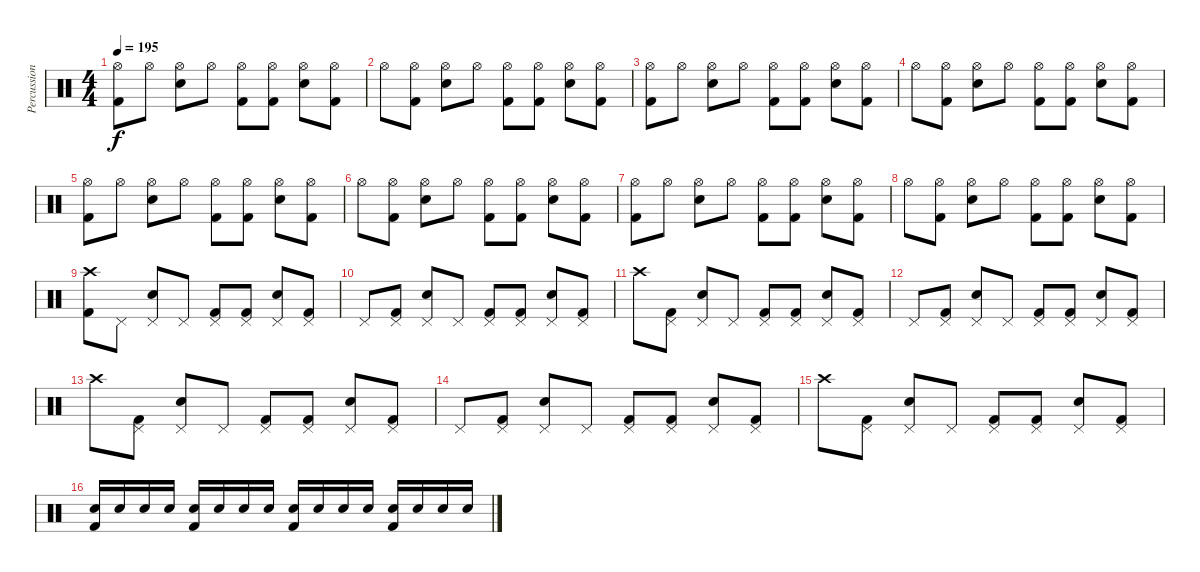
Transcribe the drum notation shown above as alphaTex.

\track ("Percussion" "Percussion") {instrument percussion}
\staff {score}
\articulation defaults
\ts (4 4)
\tempo 195
\clef neutral
\ks c
("Hi-Hat (open)" "Kick (hit) 2").8{dy f} "Hi-Hat (open)".8 ("Hi-Hat (open)" "Electric Snare (hit)").8 "Hi-Hat (open)".8 ("Hi-Hat (open)" "Kick (hit) 2").8 ("Hi-Hat (open)" "Kick (hit) 2").8 ("Hi-Hat (open)" "Electric Snare (hit)").8 ("Hi-Hat (open)" "Kick (hit) 2").8 |
"Hi-Hat (open)".8 ("Hi-Hat (open)" "Kick (hit) 2").8 ("Hi-Hat (open)" "Electric Snare (hit)").8 "Hi-Hat (open)".8 ("Hi-Hat (open)" "Kick (hit) 2").8 ("Hi-Hat (open)" "Kick (hit) 2").8 ("Hi-Hat (open)" "Electric Snare (hit)").8 ("Hi-Hat (open)" "Kick (hit) 2").8 |
("Hi-Hat (open)" "Kick (hit) 2").8 "Hi-Hat (open)".8 ("Hi-Hat (open)" "Electric Snare (hit)").8 "Hi-Hat (open)".8 ("Hi-Hat (open)" "Kick (hit) 2").8 ("Hi-Hat (open)" "Kick (hit) 2").8 ("Hi-Hat (open)" "Electric Snare (hit)").8 ("Hi-Hat (open)" "Kick (hit) 2").8 |
"Hi-Hat (open)".8 ("Hi-Hat (open)" "Kick (hit) 2").8 ("Hi-Hat (open)" "Electric Snare (hit)").8 "Hi-Hat (open)".8 ("Hi-Hat (open)" "Kick (hit) 2").8 ("Hi-Hat (open)" "Kick (hit) 2").8 ("Hi-Hat (open)" "Electric Snare (hit)").8 ("Hi-Hat (open)" "Kick (hit) 2").8 |
("Hi-Hat (open)" "Kick (hit) 2").8 "Hi-Hat (open)".8 ("Hi-Hat (open)" "Electric Snare (hit)").8 "Hi-Hat (open)".8 ("Hi-Hat (open)" "Kick (hit) 2").8 ("Hi-Hat (open)" "Kick (hit) 2").8 ("Hi-Hat (open)" "Electric Snare (hit)").8 ("Hi-Hat (open)" "Kick (hit) 2").8 |
"Hi-Hat (open)".8 ("Hi-Hat (open)" "Kick (hit) 2").8 ("Hi-Hat (open)" "Electric Snare (hit)").8 "Hi-Hat (open)".8 ("Hi-Hat (open)" "Kick (hit) 2").8 ("Hi-Hat (open)" "Kick (hit) 2").8 ("Hi-Hat (open)" "Electric Snare (hit)").8 ("Hi-Hat (open)" "Kick (hit) 2").8 |
("Hi-Hat (open)" "Kick (hit) 2").8 "Hi-Hat (open)".8 ("Hi-Hat (open)" "Electric Snare (hit)").8 "Hi-Hat (open)".8 ("Hi-Hat (open)" "Kick (hit) 2").8 ("Hi-Hat (open)" "Kick (hit) 2").8 ("Hi-Hat (open)" "Electric Snare (hit)").8 ("Hi-Hat (open)" "Kick (hit) 2").8 |
"Hi-Hat (open)".8 ("Hi-Hat (open)" "Kick (hit) 2").8 ("Hi-Hat (open)" "Electric Snare (hit)").8 "Hi-Hat (open)".8 ("Hi-Hat (open)" "Kick (hit) 2").8 ("Hi-Hat (open)" "Kick (hit) 2").8 ("Hi-Hat (open)" "Electric Snare (hit)").8 ("Hi-Hat (open)" "Kick (hit) 2").8 |
("Crash high (hit)" "Kick (hit) 2").8 "Pedal Hi-Hat (hit)".8 ("Pedal Hi-Hat (hit)" "Electric Snare (hit)").8 "Pedal Hi-Hat (hit)".8 ("Pedal Hi-Hat (hit)" "Kick (hit) 2").8 ("Pedal Hi-Hat (hit)" "Kick (hit) 2").8 ("Pedal Hi-Hat (hit)" "Electric Snare (hit)").8 ("Pedal Hi-Hat (hit)" "Kick (hit) 2").8 |
"Pedal Hi-Hat (hit)".8 ("Pedal Hi-Hat (hit)" "Kick (hit) 2").8 ("Pedal Hi-Hat (hit)" "Electric Snare (hit)").8 "Pedal Hi-Hat (hit)".8 ("Pedal Hi-Hat (hit)" "Kick (hit) 2").8 ("Pedal Hi-Hat (hit)" "Kick (hit) 2").8 ("Pedal Hi-Hat (hit)" "Electric Snare (hit)").8 ("Pedal Hi-Hat (hit)" "Kick (hit) 2").8 |
"Crash high (hit)".8 ("Pedal Hi-Hat (hit)" "Kick (hit) 2").8 ("Pedal Hi-Hat (hit)" "Electric Snare (hit)").8 "Pedal Hi-Hat (hit)".8 ("Pedal Hi-Hat (hit)" "Kick (hit) 2").8 ("Pedal Hi-Hat (hit)" "Kick (hit) 2").8 ("Pedal Hi-Hat (hit)" "Electric Snare (hit)").8 ("Pedal Hi-Hat (hit)" "Kick (hit) 2").8 |
"Pedal Hi-Hat (hit)".8 ("Pedal Hi-Hat (hit)" "Kick (hit) 2").8 ("Pedal Hi-Hat (hit)" "Electric Snare (hit)").8 "Pedal Hi-Hat (hit)".8 ("Pedal Hi-Hat (hit)" "Kick (hit) 2").8 ("Pedal Hi-Hat (hit)" "Kick (hit) 2").8 ("Pedal Hi-Hat (hit)" "Electric Snare (hit)").8 ("Pedal Hi-Hat (hit)" "Kick (hit) 2").8 |
"Crash high (hit)".8 ("Pedal Hi-Hat (hit)" "Kick (hit) 2").8 ("Pedal Hi-Hat (hit)" "Electric Snare (hit)").8 "Pedal Hi-Hat (hit)".8 ("Pedal Hi-Hat (hit)" "Kick (hit) 2").8 ("Pedal Hi-Hat (hit)" "Kick (hit) 2").8 ("Pedal Hi-Hat (hit)" "Electric Snare (hit)").8 ("Pedal Hi-Hat (hit)" "Kick (hit) 2").8 |
"Pedal Hi-Hat (hit)".8 ("Pedal Hi-Hat (hit)" "Kick (hit) 2").8 ("Pedal Hi-Hat (hit)" "Electric Snare (hit)").8 "Pedal Hi-Hat (hit)".8 ("Pedal Hi-Hat (hit)" "Kick (hit) 2").8 ("Pedal Hi-Hat (hit)" "Kick (hit) 2").8 ("Pedal Hi-Hat (hit)" "Electric Snare (hit)").8 ("Pedal Hi-Hat (hit)" "Kick (hit) 2").8 |
"Crash high (hit)".8 ("Pedal Hi-Hat (hit)" "Kick (hit) 2").8 ("Pedal Hi-Hat (hit)" "Electric Snare (hit)").8 "Pedal Hi-Hat (hit)".8 ("Pedal Hi-Hat (hit)" "Kick (hit) 2").8 ("Pedal Hi-Hat (hit)" "Kick (hit) 2").8 ("Pedal Hi-Hat (hit)" "Electric Snare (hit)").8 ("Pedal Hi-Hat (hit)" "Kick (hit) 2").8 |
("Electric Snare (hit)" "Kick (hit) 2").16 "Electric Snare (hit)".16 "Electric Snare (hit)".16 "Electric Snare (hit)".16 ("Electric Snare (hit)" "Kick (hit) 2").16 "Electric Snare (hit)".16 "Electric Snare (hit)".16 "Electric Snare (hit)".16 ("Electric Snare (hit)" "Kick (hit) 2").16 "Electric Snare (hit)".16 "Electric Snare (hit)".16 "Electric Snare (hit)".16 ("Electric Snare (hit)" "Kick (hit) 2").16 "Electric Snare (hit)".16 "Electric Snare (hit)".16 "Electric Snare (hit)".16
